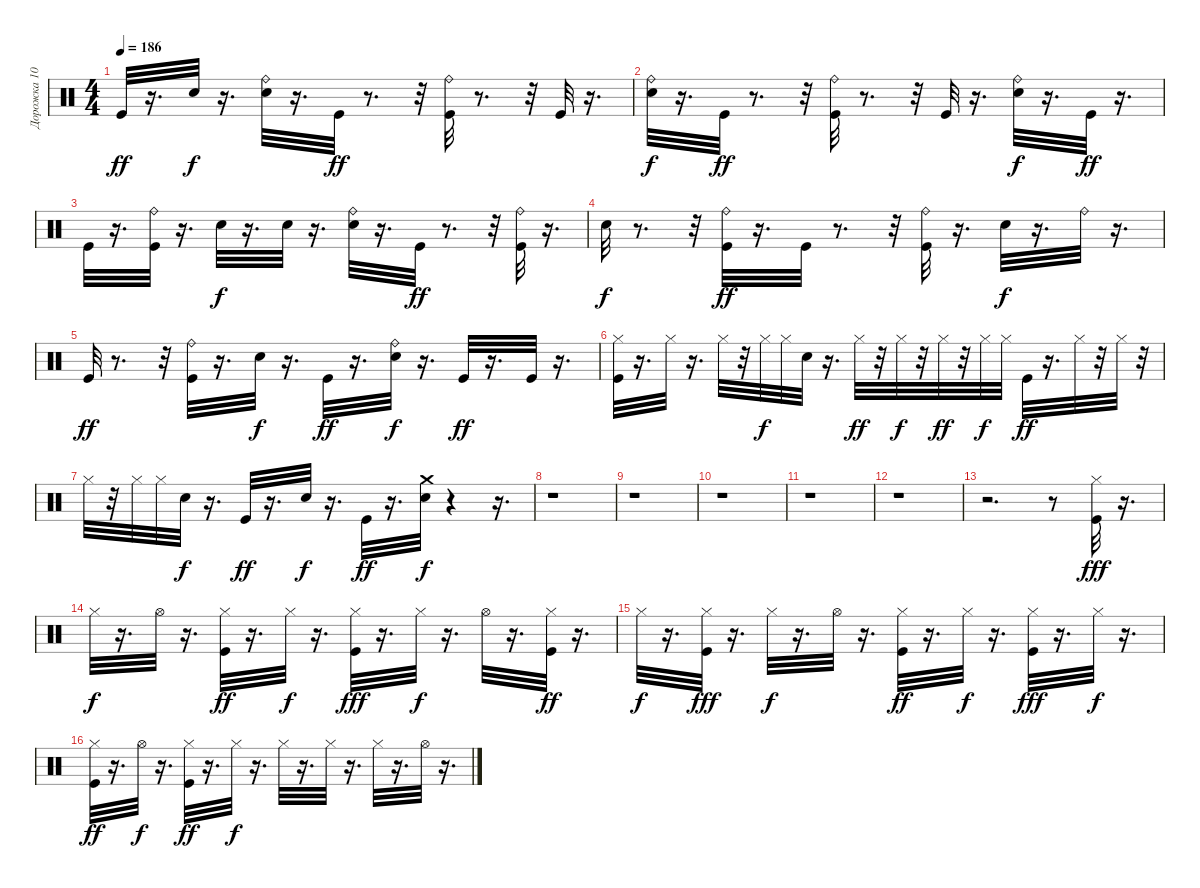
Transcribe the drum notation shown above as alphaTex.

\track ("Дорожка 10" "Дорожка 10") {instrument percussion}
\staff {score}
\articulation defaults
\ts (4 4)
\tempo 186
\clef neutral
\ks c "Kick (hit)".32{dy ff}
r.16{d} "Electric Snare (hit)".32{dy f} r.16{d} ("Electric Snare (hit)" "Ride (bell)").32 r.16{d} "Kick (hit)".32{dy ff} r.8{d} r.32 ("Kick (hit)" "Ride (bell)").32 r.8{d} r.32 "Kick (hit)".32 r.16{d} |
("Ride (bell)" "Electric Snare (hit)").32{dy f} r.16{d} "Kick (hit)".32{dy ff} r.8{d} r.32 ("Ride (bell)" "Kick (hit)").32 r.8{d} r.32 "Kick (hit)".32 r.16{d} ("Electric Snare (hit)" "Ride (bell)").32{dy f} r.16{d} "Kick (hit)".32{dy ff} r.16{d} |
"Kick (hit)".32 r.16{d} ("Kick (hit)" "Ride (bell)").32 r.16{d} "Electric Snare (hit)".32{dy f} r.16{d} "Electric Snare (hit)".32 r.16{d} ("Electric Snare (hit)" "Ride (bell)").32 r.16{d} "Kick (hit)".32{dy ff} r.8{d} r.32 ("Kick (hit)" "Ride (bell)").32 r.16{d} |
"Electric Snare (hit)".32{dy f} r.8{d} r.32 ("Ride (bell)" "Kick (hit)").32{dy ff} r.16{d} "Kick (hit)".32 r.8{d} r.32 ("Ride (bell)" "Kick (hit)").32 r.16{d} "Electric Snare (hit)".32{dy f} r.16{d} "Ride (bell)".32 r.16{d} |
"Kick (hit)".32{dy ff} r.8{d} r.32 ("Kick (hit)" "Ride (bell)").32 r.16{d} "Electric Snare (hit)".32{dy f} r.16{d} "Kick (hit)".32{dy ff} r.16{d} ("Electric Snare (hit)" "Ride (bell)").32{dy f} r.16{d} "Kick (hit)".32{dy ff} r.16{d} "Kick (hit)".32 r.16{d} |
("Kick (hit)" "Hi-Hat (closed)").32 r.16{d} "Hi-Hat (closed)".32 r.16{d} "Hi-Hat (closed)".32 r.32 "Hi-Hat (closed)".32{dy f} "Hi-Hat (closed)".32 "Electric Snare (hit)".32 r.16{d} "Hi-Hat (closed)".32{dy ff} r.32 "Hi-Hat (closed)".32{dy f} r.32 "Hi-Hat (closed)".32{dy ff} r.32 "Hi-Hat (closed)".32{dy f} "Hi-Hat (closed)".32 "Kick (hit)".32{dy ff} r.16{d} "Hi-Hat (closed)".32 r.32 "Hi-Hat (closed)".32 r.32 |
"Hi-Hat (closed)".32 r.32 "Hi-Hat (closed)".32 "Hi-Hat (closed)".32 "Electric Snare (hit)".32{dy f} r.16{d} "Kick (hit)".32{dy ff} r.16{d} "Electric Snare (hit)".32{dy f} r.16{d} "Kick (hit)".32{dy ff} r.16{d} ("Crash medium (hit)" "Electric Snare (hit)").32{dy f} r.4 r.16{d} |
r.1 |
r.1 |
r.1 |
r.1 |
r.1 |
r.2{d} r.8 ("Hi-Hat (closed)" "Kick (hit)").32{dy fff} r.16{d} |
"Hi-Hat (closed)".32{dy f} r.16{d} "Hi-Hat (open)".32 r.16{d} ("Hi-Hat (closed)" "Kick (hit)").32{dy ff} r.16{d} "Hi-Hat (closed)".32{dy f} r.16{d} ("Hi-Hat (closed)" "Kick (hit)").32{dy fff} r.16{d} "Hi-Hat (closed)".32{dy f} r.16{d} "Hi-Hat (open)".32 r.16{d} ("Kick (hit)" "Hi-Hat (closed)").32{dy ff} r.16{d} |
"Hi-Hat (closed)".32{dy f} r.16{d} ("Hi-Hat (closed)" "Kick (hit)").32{dy fff} r.16{d} "Hi-Hat (closed)".32{dy f} r.16{d} "Hi-Hat (open)".32 r.16{d} ("Hi-Hat (closed)" "Kick (hit)").32{dy ff} r.16{d} "Hi-Hat (closed)".32{dy f} r.16{d} ("Hi-Hat (closed)" "Kick (hit)").32{dy fff} r.16{d} "Hi-Hat (closed)".32{dy f} r.16{d} |
("Hi-Hat (closed)" "Kick (hit)").32{dy ff} r.16{d} "Hi-Hat (open)".32{dy f} r.16{d} ("Kick (hit)" "Hi-Hat (closed)").32{dy ff} r.16{d} "Hi-Hat (closed)".32{dy f} r.16{d} "Hi-Hat (closed)".32 r.16{d} "Hi-Hat (closed)".32 r.16{d} "Hi-Hat (closed)".32 r.16{d} "Hi-Hat (open)".32 r.16{d}
